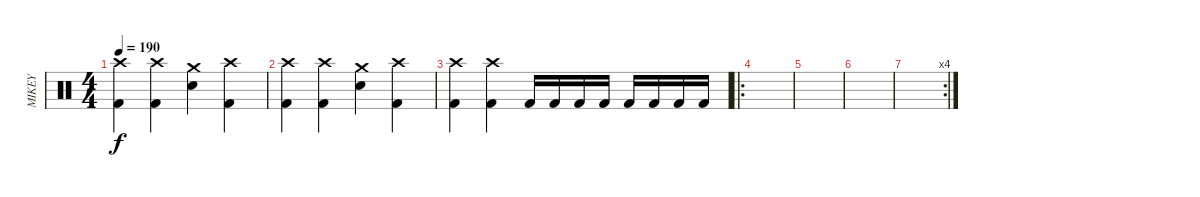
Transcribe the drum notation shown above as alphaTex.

\track ("MIKEY" "MIKEY") {instrument percussion}
\staff {score}
\articulation defaults
\ts (4 4)
\tempo 190
\clef neutral
\ks c
("Crash high (hit)" "Kick (hit) 2").4{dy f} ("Crash high (hit)" "Kick (hit) 2").4 ("Crash medium (hit)" "Snare (hit) 2").4 ("Crash high (hit)" "Kick (hit) 2").4 |
("Crash high (hit)" "Kick (hit) 2").4 ("Crash high (hit)" "Kick (hit) 2").4 ("Crash medium (hit)" "Snare (hit) 2").4 ("Crash high (hit)" "Kick (hit) 2").4 |
("Crash high (hit)" "Kick (hit) 2").4 ("Crash high (hit)" "Kick (hit) 2").4 "Kick (hit) 2".16 "Kick (hit) 2".16 "Kick (hit) 2".16 "Kick (hit) 2".16 "Kick (hit) 2".16 "Kick (hit) 2".16 "Kick (hit) 2".16 "Kick (hit) 2".16 |
\ro
|
|
|
\rc 4
